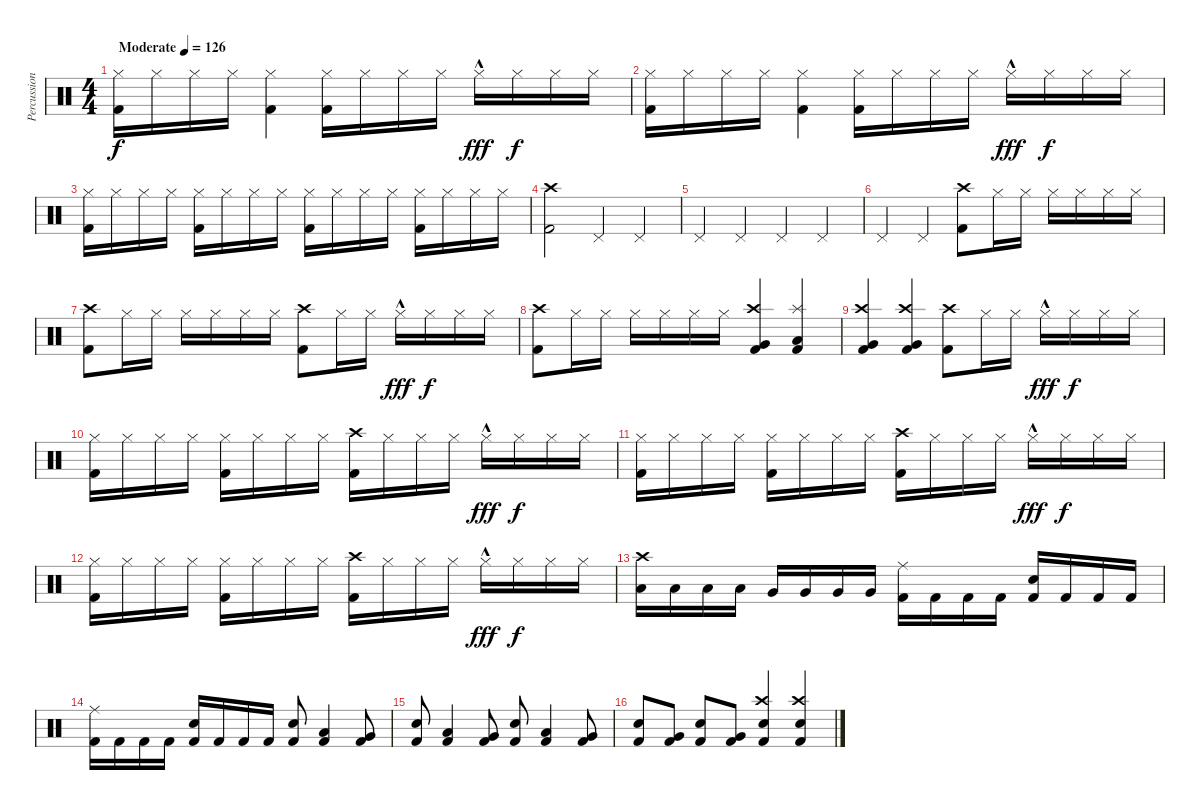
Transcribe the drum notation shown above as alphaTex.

\track ("Percussion" "Percussion") {instrument percussion}
\staff {score}
\articulation defaults
\ts (4 4)
\tempo (126 "Moderate")
\clef neutral
\ks c
("Kick (hit) 2" "Hi-Hat (closed)").16{dy f} "Hi-Hat (closed)".16 "Hi-Hat (closed)".16 "Hi-Hat (closed)".16 ("Kick (hit) 2" "Hi-Hat (closed)").4 ("Kick (hit) 2" "Hi-Hat (closed)").16 "Hi-Hat (closed)".16 "Hi-Hat (closed)".16 "Hi-Hat (closed)".16 "Hi-Hat (closed)"{hac}.16{dy fff} "Hi-Hat (closed)".16{dy f} "Hi-Hat (closed)".16 "Hi-Hat (closed)".16 |
("Kick (hit) 2" "Hi-Hat (closed)").16 "Hi-Hat (closed)".16 "Hi-Hat (closed)".16 "Hi-Hat (closed)".16 ("Kick (hit) 2" "Hi-Hat (closed)").4 ("Kick (hit) 2" "Hi-Hat (closed)").16 "Hi-Hat (closed)".16 "Hi-Hat (closed)".16 "Hi-Hat (closed)".16 "Hi-Hat (closed)"{hac}.16{dy fff} "Hi-Hat (closed)".16{dy f} "Hi-Hat (closed)".16 "Hi-Hat (closed)".16 |
("Kick (hit) 2" "Hi-Hat (closed)").16 "Hi-Hat (closed)".16 "Hi-Hat (closed)".16 "Hi-Hat (closed)".16 ("Kick (hit) 2" "Hi-Hat (closed)").16 "Hi-Hat (closed)".16 "Hi-Hat (closed)".16 "Hi-Hat (closed)".16 ("Kick (hit) 2" "Hi-Hat (closed)").16 "Hi-Hat (closed)".16 "Hi-Hat (closed)".16 "Hi-Hat (closed)".16 ("Kick (hit) 2" "Hi-Hat (closed)").16 "Hi-Hat (closed)".16 "Hi-Hat (closed)".16 "Hi-Hat (closed)".16 |
("Kick (hit) 2" "Crash high (hit)").2 "Pedal Hi-Hat (hit)".4 "Pedal Hi-Hat (hit)".4 |
"Pedal Hi-Hat (hit)".4 "Pedal Hi-Hat (hit)".4 "Pedal Hi-Hat (hit)".4 "Pedal Hi-Hat (hit)".4 |
"Pedal Hi-Hat (hit)".4 "Pedal Hi-Hat (hit)".4 ("Kick (hit) 2" "Crash high (hit)").8 "Hi-Hat (closed)".16 "Hi-Hat (closed)".16 "Hi-Hat (closed)".16 "Hi-Hat (closed)".16 "Hi-Hat (closed)".16 "Hi-Hat (closed)".16 |
("Kick (hit) 2" "Crash high (hit)").8 "Hi-Hat (closed)".16 "Hi-Hat (closed)".16 "Hi-Hat (closed)".16 "Hi-Hat (closed)".16 "Hi-Hat (closed)".16 "Hi-Hat (closed)".16 ("Kick (hit) 2" "Crash high (hit)").8 "Hi-Hat (closed)".16 "Hi-Hat (closed)".16 "Hi-Hat (closed)"{hac}.16{dy fff} "Hi-Hat (closed)".16{dy f} "Hi-Hat (closed)".16 "Hi-Hat (closed)".16 |
("Kick (hit) 2" "Crash high (hit)").8 "Hi-Hat (closed)".16 "Hi-Hat (closed)".16 "Hi-Hat (closed)".16 "Hi-Hat (closed)".16 "Hi-Hat (closed)".16 "Hi-Hat (closed)".16 ("Kick (hit) 2" "Crash high (hit)" "Very Low Tom (hit)").4 ("Kick (hit) 2" "Splash (hit)" "Low Floor Tom (hit)").4 |
("Kick (hit) 2" "Crash high (hit)" "Very Low Tom (hit)").4 ("Kick (hit) 2" "Crash high (hit)" "Very Low Tom (hit)").4 ("Kick (hit) 2" "Crash high (hit)").8 "Hi-Hat (closed)".16 "Hi-Hat (closed)".16 "Hi-Hat (closed)"{hac}.16{dy fff} "Hi-Hat (closed)".16{dy f} "Hi-Hat (closed)".16 "Hi-Hat (closed)".16 |
("Kick (hit) 2" "Hi-Hat (closed)").16 "Hi-Hat (closed)".16 "Hi-Hat (closed)".16 "Hi-Hat (closed)".16 ("Kick (hit) 2" "Hi-Hat (closed)").16 "Hi-Hat (closed)".16 "Hi-Hat (closed)".16 "Hi-Hat (closed)".16 ("Kick (hit) 2" "Crash high (hit)").16 "Hi-Hat (closed)".16 "Hi-Hat (closed)".16 "Hi-Hat (closed)".16 "Hi-Hat (closed)"{hac}.16{dy fff} "Hi-Hat (closed)".16{dy f} "Hi-Hat (closed)".16 "Hi-Hat (closed)".16 |
("Kick (hit) 2" "Hi-Hat (closed)").16 "Hi-Hat (closed)".16 "Hi-Hat (closed)".16 "Hi-Hat (closed)".16 ("Kick (hit) 2" "Hi-Hat (closed)").16 "Hi-Hat (closed)".16 "Hi-Hat (closed)".16 "Hi-Hat (closed)".16 ("Kick (hit) 2" "Crash high (hit)").16 "Hi-Hat (closed)".16 "Hi-Hat (closed)".16 "Hi-Hat (closed)".16 "Hi-Hat (closed)"{hac}.16{dy fff} "Hi-Hat (closed)".16{dy f} "Hi-Hat (closed)".16 "Hi-Hat (closed)".16 |
("Kick (hit) 2" "Hi-Hat (closed)").16 "Hi-Hat (closed)".16 "Hi-Hat (closed)".16 "Hi-Hat (closed)".16 ("Kick (hit) 2" "Hi-Hat (closed)").16 "Hi-Hat (closed)".16 "Hi-Hat (closed)".16 "Hi-Hat (closed)".16 ("Kick (hit) 2" "Crash high (hit)").16 "Hi-Hat (closed)".16 "Hi-Hat (closed)".16 "Hi-Hat (closed)".16 "Hi-Hat (closed)"{hac}.16{dy fff} "Hi-Hat (closed)".16{dy f} "Hi-Hat (closed)".16 "Hi-Hat (closed)".16 |
("Low Floor Tom (hit)" "Crash high (hit)").16 "Low Floor Tom (hit)".16 "Low Floor Tom (hit)".16 "Low Floor Tom (hit)".16 "Very Low Tom (hit)".16 "Very Low Tom (hit)".16 "Very Low Tom (hit)".16 "Very Low Tom (hit)".16 ("Kick (hit) 2" "Ride (middle)").16 "Kick (hit) 2".16 "Kick (hit) 2".16 "Kick (hit) 2".16 ("Kick (hit) 2" "Snare (hit) 2").16 "Kick (hit) 2".16 "Kick (hit) 2".16 "Kick (hit) 2".16 |
("Kick (hit) 2" "Ride (middle)").16 "Kick (hit) 2".16 "Kick (hit) 2".16 "Kick (hit) 2".16 ("Kick (hit) 2" "Snare (hit) 2").16 "Kick (hit) 2".16 "Kick (hit) 2".16 "Kick (hit) 2".16 ("Kick (hit) 2" "Snare (hit) 2").8 ("Kick (hit) 2" "Low Floor Tom (hit)").4 ("Kick (hit) 2" "Very Low Tom (hit)").8 |
("Kick (hit) 2" "Snare (hit) 2").8 ("Kick (hit) 2" "Low Floor Tom (hit)").4 ("Kick (hit) 2" "Very Low Tom (hit)").8 ("Kick (hit) 2" "Snare (hit) 2").8 ("Kick (hit) 2" "Low Floor Tom (hit)").4 ("Kick (hit) 2" "Very Low Tom (hit)").8 |
("Kick (hit) 2" "Snare (hit) 2").8 ("Kick (hit) 2" "Very Low Tom (hit)").8 ("Kick (hit) 2" "Snare (hit) 2").8 ("Kick (hit) 2" "Very Low Tom (hit)").8 ("Kick (hit) 2" "Crash high (hit)" "Snare (hit) 2").4 ("Kick (hit) 2" "Crash high (hit)" "Snare (hit) 2").4
